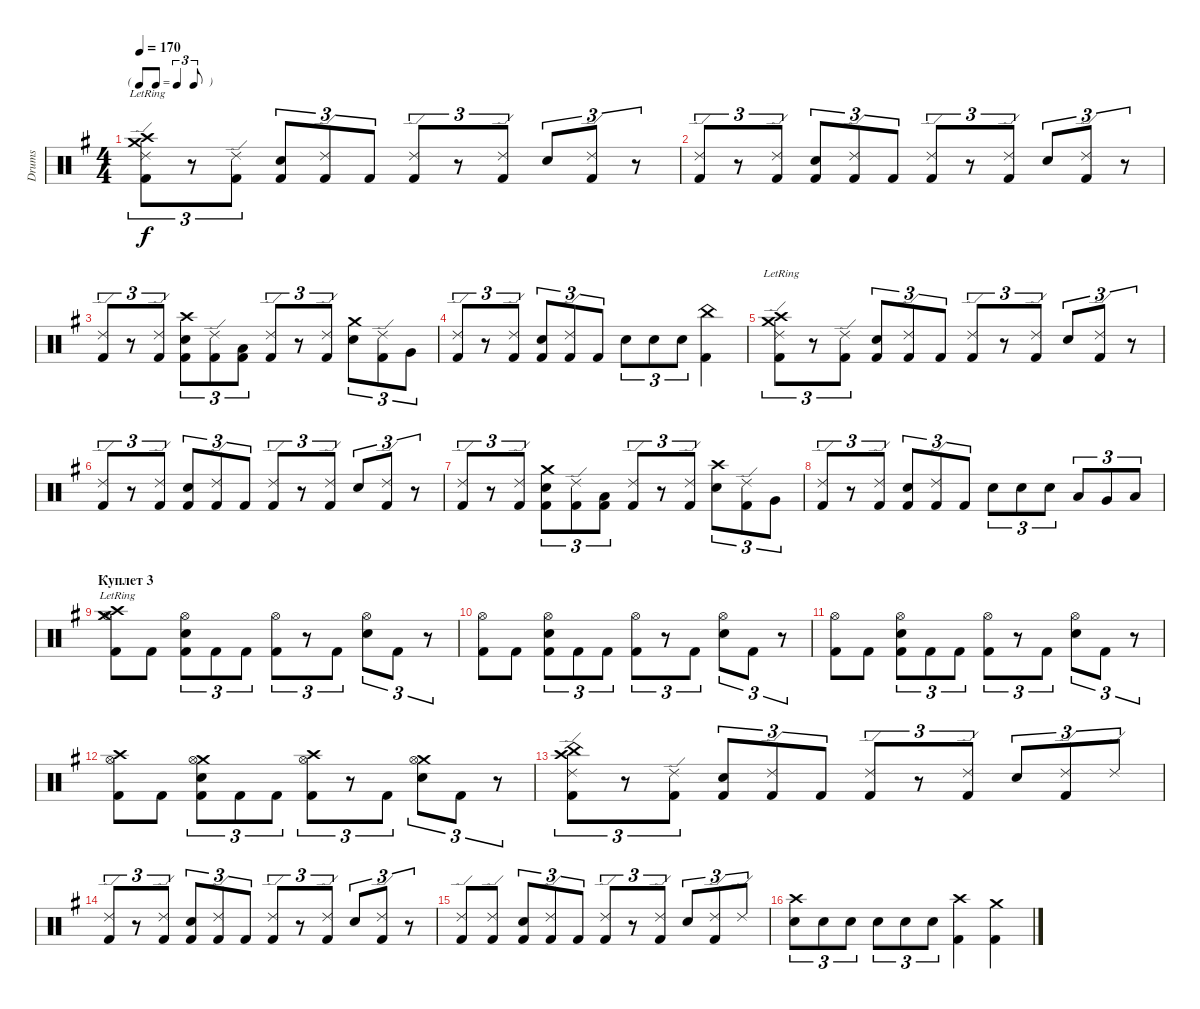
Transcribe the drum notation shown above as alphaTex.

\track ("Drums" "Drums") {instrument percussion}
\staff {score}
\articulation defaults
\ts (4 4)
\tf triplet8th
\tempo 170
\clef neutral
\ks eminor
("Crash high (hit)"{lr} "Crash medium (hit)"{lr} "Ride (edge) 2" "Kick (hit) 2").8{tu (3 2) dy f} r.8{tu (3 2)} ("Ride (edge) 2" "Kick (hit) 2").8{tu (3 2)} ("Electric Snare (hit)" "Kick (hit) 2").8{tu (3 2)} ("Ride (edge) 2" "Kick (hit) 2").8{tu (3 2)} "Kick (hit) 2".8{tu (3 2)} ("Ride (edge) 2" "Kick (hit) 2").8{tu (3 2)} r.8{tu (3 2)} ("Ride (edge) 2" "Kick (hit) 2").8{tu (3 2)} "Electric Snare (hit)".8{tu (3 2)} ("Ride (edge) 2" "Kick (hit) 2").8{tu (3 2)} r.8{tu (3 2)} |
("Ride (edge) 2" "Kick (hit) 2").8{tu (3 2)} r.8{tu (3 2)} ("Ride (edge) 2" "Kick (hit) 2").8{tu (3 2)} ("Electric Snare (hit)" "Kick (hit) 2").8{tu (3 2)} ("Ride (edge) 2" "Kick (hit) 2").8{tu (3 2)} "Kick (hit) 2".8{tu (3 2)} ("Ride (edge) 2" "Kick (hit) 2").8{tu (3 2)} r.8{tu (3 2)} ("Ride (edge) 2" "Kick (hit) 2").8{tu (3 2)} "Electric Snare (hit)".8{tu (3 2)} ("Ride (edge) 2" "Kick (hit) 2").8{tu (3 2)} r.8{tu (3 2)} |
("Ride (edge) 2" "Kick (hit) 2").8{tu (3 2)} r.8{tu (3 2)} ("Ride (edge) 2" "Kick (hit) 2").8{tu (3 2)} ("Crash high (hit)" "Electric Snare (hit)" "Kick (hit) 2").8{tu (3 2)} ("Ride (edge) 2" "Kick (hit) 2").8{tu (3 2)} ("Low Tom (hit)" "Kick (hit) 2").8{tu (3 2)} ("Ride (edge) 2" "Kick (hit) 2").8{tu (3 2)} r.8{tu (3 2)} ("Ride (edge) 2" "Kick (hit) 2").8{tu (3 2)} ("Crash medium (hit)" "Electric Snare (hit)").8{tu (3 2)} ("Ride (edge) 2" "Kick (hit) 2").8{tu (3 2)} "Very Low Tom (hit)".8{tu (3 2)} |
("Ride (edge) 2" "Kick (hit) 2").8{tu (3 2)} r.8{tu (3 2)} ("Ride (edge) 2" "Kick (hit) 2").8{tu (3 2)} ("Electric Snare (hit)" "Kick (hit) 2").8{tu (3 2)} ("Ride (edge) 2" "Kick (hit) 2").8{tu (3 2)} "Kick (hit) 2".8{tu (3 2)} "Electric Snare (hit)".8{tu (3 2)} "Electric Snare (hit)".8{tu (3 2)} "Electric Snare (hit)".8{tu (3 2)} ("China (hit)" "Kick (hit) 2").4 |
("Crash high (hit)"{lr} "Crash medium (hit)"{lr} "Ride (edge) 2" "Kick (hit) 2").8{tu (3 2)} r.8{tu (3 2)} ("Ride (edge) 2" "Kick (hit) 2").8{tu (3 2)} ("Electric Snare (hit)" "Kick (hit) 2").8{tu (3 2)} ("Ride (edge) 2" "Kick (hit) 2").8{tu (3 2)} "Kick (hit) 2".8{tu (3 2)} ("Ride (edge) 2" "Kick (hit) 2").8{tu (3 2)} r.8{tu (3 2)} ("Ride (edge) 2" "Kick (hit) 2").8{tu (3 2)} "Electric Snare (hit)".8{tu (3 2)} ("Ride (edge) 2" "Kick (hit) 2").8{tu (3 2)} r.8{tu (3 2)} |
("Ride (edge) 2" "Kick (hit) 2").8{tu (3 2)} r.8{tu (3 2)} ("Ride (edge) 2" "Kick (hit) 2").8{tu (3 2)} ("Electric Snare (hit)" "Kick (hit) 2").8{tu (3 2)} ("Ride (edge) 2" "Kick (hit) 2").8{tu (3 2)} "Kick (hit) 2".8{tu (3 2)} ("Ride (edge) 2" "Kick (hit) 2").8{tu (3 2)} r.8{tu (3 2)} ("Ride (edge) 2" "Kick (hit) 2").8{tu (3 2)} "Electric Snare (hit)".8{tu (3 2)} ("Ride (edge) 2" "Kick (hit) 2").8{tu (3 2)} r.8{tu (3 2)} |
("Ride (edge) 2" "Kick (hit) 2").8{tu (3 2)} r.8{tu (3 2)} ("Ride (edge) 2" "Kick (hit) 2").8{tu (3 2)} ("Crash medium (hit)" "Electric Snare (hit)" "Kick (hit) 2").8{tu (3 2)} ("Ride (edge) 2" "Kick (hit) 2").8{tu (3 2)} ("Low Tom (hit)" "Kick (hit) 2").8{tu (3 2)} ("Ride (edge) 2" "Kick (hit) 2").8{tu (3 2)} r.8{tu (3 2)} ("Ride (edge) 2" "Kick (hit) 2").8{tu (3 2)} ("Crash high (hit)" "Electric Snare (hit)").8{tu (3 2)} ("Ride (edge) 2" "Kick (hit) 2").8{tu (3 2)} "Very Low Tom (hit)".8{tu (3 2)} |
("Ride (edge) 2" "Kick (hit) 2").8{tu (3 2)} r.8{tu (3 2)} ("Ride (edge) 2" "Kick (hit) 2").8{tu (3 2)} ("Electric Snare (hit)" "Kick (hit) 2").8{tu (3 2)} ("Ride (edge) 2" "Kick (hit) 2").8{tu (3 2)} "Kick (hit) 2".8{tu (3 2)} "Electric Snare (hit)".8{tu (3 2)} "Electric Snare (hit)".8{tu (3 2)} "Electric Snare (hit)".8{tu (3 2)} "Low Tom (hit)".8{tu (3 2)} "Very Low Tom (hit)".8{tu (3 2)} "Low Floor Tom (hit)".8{tu (3 2)} |
\section ("" "Куплет 3")
("Crash high (hit)"{lr} "Crash medium (hit)"{lr} "Hi-Hat (open)" "Kick (hit) 2").8 "Kick (hit) 2".8 ("Electric Snare (hit)" "Hi-Hat (open)" "Kick (hit) 2").8{tu (3 2)} "Kick (hit) 2".8{tu (3 2)} "Kick (hit) 2".8{tu (3 2)} ("Hi-Hat (open)" "Kick (hit) 2").8{tu (3 2)} r.8{tu (3 2)} "Kick (hit) 2".8{tu (3 2)} ("Electric Snare (hit)" "Hi-Hat (open)").8{tu (3 2)} "Kick (hit) 2".8{tu (3 2)} r.8{tu (3 2)} |
("Hi-Hat (open)" "Kick (hit) 2").8 "Kick (hit) 2".8 ("Electric Snare (hit)" "Hi-Hat (open)" "Kick (hit) 2").8{tu (3 2)} "Kick (hit) 2".8{tu (3 2)} "Kick (hit) 2".8{tu (3 2)} ("Hi-Hat (open)" "Kick (hit) 2").8{tu (3 2)} r.8{tu (3 2)} "Kick (hit) 2".8{tu (3 2)} ("Electric Snare (hit)" "Hi-Hat (open)").8{tu (3 2)} "Kick (hit) 2".8{tu (3 2)} r.8{tu (3 2)} |
("Hi-Hat (open)" "Kick (hit) 2").8 "Kick (hit) 2".8 ("Electric Snare (hit)" "Hi-Hat (open)" "Kick (hit) 2").8{tu (3 2)} "Kick (hit) 2".8{tu (3 2)} "Kick (hit) 2".8{tu (3 2)} ("Hi-Hat (open)" "Kick (hit) 2").8{tu (3 2)} r.8{tu (3 2)} "Kick (hit) 2".8{tu (3 2)} ("Electric Snare (hit)" "Hi-Hat (open)").8{tu (3 2)} "Kick (hit) 2".8{tu (3 2)} r.8{tu (3 2)} |
("Crash high (hit)" "Hi-Hat (open)" "Kick (hit) 2").8 "Kick (hit) 2".8 ("Crash medium (hit)" "Electric Snare (hit)" "Hi-Hat (open)" "Kick (hit) 2").8{tu (3 2)} "Kick (hit) 2".8{tu (3 2)} "Kick (hit) 2".8{tu (3 2)} ("Crash high (hit)" "Hi-Hat (open)" "Kick (hit) 2").8{tu (3 2)} r.8{tu (3 2)} "Kick (hit) 2".8{tu (3 2)} ("Crash medium (hit)" "Electric Snare (hit)" "Hi-Hat (open)").8{tu (3 2)} "Kick (hit) 2".8{tu (3 2)} r.8{tu (3 2)} |
("China (hit)" "Crash high (hit)" "Ride (edge) 2" "Kick (hit) 2").8{tu (3 2)} r.8{tu (3 2)} ("Ride (edge) 2" "Kick (hit) 2").8{tu (3 2)} ("Electric Snare (hit)" "Kick (hit) 2").8{tu (3 2)} ("Ride (edge) 2" "Kick (hit) 2").8{tu (3 2)} "Kick (hit) 2".8{tu (3 2)} ("Ride (edge) 2" "Kick (hit) 2").8{tu (3 2)} r.8{tu (3 2)} ("Ride (edge) 2" "Kick (hit) 2").8{tu (3 2)} "Electric Snare (hit)".8{tu (3 2)} ("Ride (edge) 2" "Kick (hit) 2").8{tu (3 2)} "Ride (edge) 2".8{tu (3 2)} |
("Ride (edge) 2" "Kick (hit) 2").8{tu (3 2)} r.8{tu (3 2)} ("Ride (edge) 2" "Kick (hit) 2").8{tu (3 2)} ("Electric Snare (hit)" "Kick (hit) 2").8{tu (3 2)} ("Ride (edge) 2" "Kick (hit) 2").8{tu (3 2)} "Kick (hit) 2".8{tu (3 2)} ("Ride (edge) 2" "Kick (hit) 2").8{tu (3 2)} r.8{tu (3 2)} ("Ride (edge) 2" "Kick (hit) 2").8{tu (3 2)} "Electric Snare (hit)".8{tu (3 2)} ("Ride (edge) 2" "Kick (hit) 2").8{tu (3 2)} r.8{tu (3 2)} |
("Ride (edge) 2" "Kick (hit) 2").8 ("Ride (edge) 2" "Kick (hit) 2").8 ("Electric Snare (hit)" "Kick (hit) 2").8{tu (3 2)} ("Ride (edge) 2" "Kick (hit) 2").8{tu (3 2)} "Kick (hit) 2".8{tu (3 2)} ("Ride (edge) 2" "Kick (hit) 2").8{tu (3 2)} r.8{tu (3 2)} ("Ride (edge) 2" "Kick (hit) 2").8{tu (3 2)} "Electric Snare (hit)".8{tu (3 2)} ("Ride (edge) 2" "Kick (hit) 2").8{tu (3 2)} "Ride (edge) 2".8{tu (3 2)} |
("Crash high (hit)" "Electric Snare (hit)").8{tu (3 2)} "Electric Snare (hit)".8{tu (3 2)} "Electric Snare (hit)".8{tu (3 2)} "Electric Snare (hit)".8{tu (3 2)} "Electric Snare (hit)".8{tu (3 2)} "Electric Snare (hit)".8{tu (3 2)} ("Crash high (hit)" "Kick (hit) 2").4 ("Crash medium (hit)" "Kick (hit) 2").4
